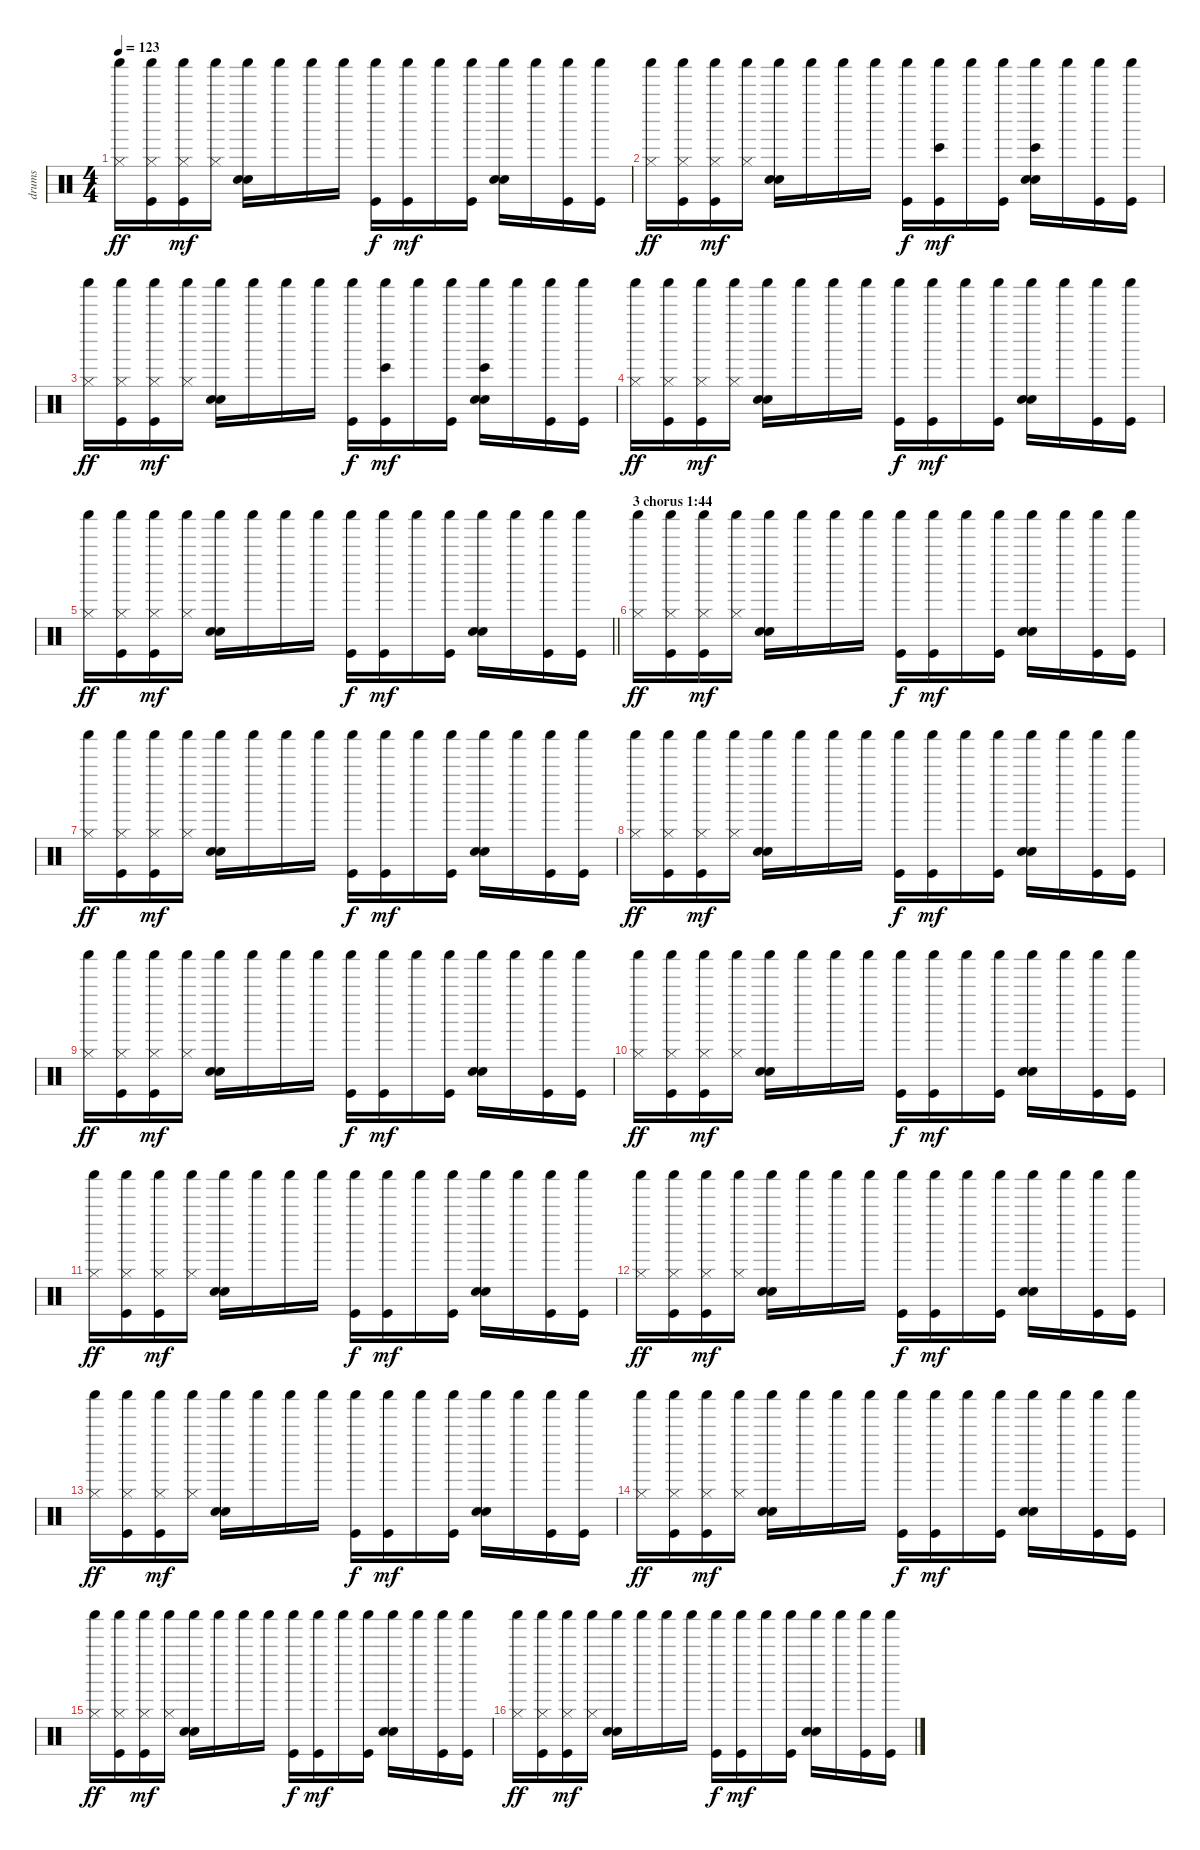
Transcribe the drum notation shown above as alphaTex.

\track ("drums" "drums") {instrument percussion}
\staff {score}
\articulation defaults
\ts (4 4)
\tempo 123
\clef neutral
\ks c
("Shaker (hit)" "Hi-Hat (closed)").16{dy ff} ("Shaker (hit)" "Hi-Hat (closed)" "Kick (hit)").16 ("Shaker (hit)" "Hi-Hat (closed)" "Kick (hit)").16{dy mf} ("Shaker (hit)" "Hi-Hat (closed)").16 ("Shaker (hit)" "Electric Snare (hit)" "Hand Clap (hit)").16 "Shaker (hit)".16 "Shaker (hit)".16 "Shaker (hit)".16 ("Shaker (hit)" "Kick (hit)").16{dy f} ("Shaker (hit)" "Kick (hit)").16{dy mf} "Shaker (hit)".16 ("Shaker (hit)" "Kick (hit)").16 ("Shaker (hit)" "Electric Snare (hit)" "Hand Clap (hit)").16 "Shaker (hit)".16 ("Shaker (hit)" "Kick (hit)").16 ("Shaker (hit)" "Kick (hit)").16 |
("Shaker (hit)" "Hi-Hat (closed)").16{dy ff} ("Shaker (hit)" "Hi-Hat (closed)" "Kick (hit)").16 ("Shaker (hit)" "Hi-Hat (closed)" "Kick (hit)").16{dy mf} ("Shaker (hit)" "Hi-Hat (closed)").16 ("Shaker (hit)" "Electric Snare (hit)" "Hand Clap (hit)").16 "Shaker (hit)".16 "Shaker (hit)".16 "Shaker (hit)".16 ("Shaker (hit)" "Kick (hit)").16{dy f} ("Shaker (hit)" "Bongo High (hit)" "Kick (hit)").16{dy mf} "Shaker (hit)".16 ("Shaker (hit)" "Kick (hit)").16 ("Shaker (hit)" "Electric Snare (hit)" "Hand Clap (hit)" "Bongo High (hit)").16 "Shaker (hit)".16 ("Shaker (hit)" "Kick (hit)").16 ("Shaker (hit)" "Kick (hit)").16 |
("Shaker (hit)" "Hi-Hat (closed)").16{dy ff} ("Shaker (hit)" "Hi-Hat (closed)" "Kick (hit)").16 ("Shaker (hit)" "Hi-Hat (closed)" "Kick (hit)").16{dy mf} ("Shaker (hit)" "Hi-Hat (closed)").16 ("Shaker (hit)" "Electric Snare (hit)" "Hand Clap (hit)").16 "Shaker (hit)".16 "Shaker (hit)".16 "Shaker (hit)".16 ("Shaker (hit)" "Kick (hit)").16{dy f} ("Shaker (hit)" "Bongo High (hit)" "Kick (hit)").16{dy mf} "Shaker (hit)".16 ("Shaker (hit)" "Kick (hit)").16 ("Shaker (hit)" "Electric Snare (hit)" "Hand Clap (hit)" "Bongo High (hit)").16 "Shaker (hit)".16 ("Shaker (hit)" "Kick (hit)").16 ("Shaker (hit)" "Kick (hit)").16 |
("Shaker (hit)" "Hi-Hat (closed)").16{dy ff} ("Shaker (hit)" "Hi-Hat (closed)" "Kick (hit)").16 ("Shaker (hit)" "Hi-Hat (closed)" "Kick (hit)").16{dy mf} ("Shaker (hit)" "Hi-Hat (closed)").16 ("Shaker (hit)" "Electric Snare (hit)" "Hand Clap (hit)").16 "Shaker (hit)".16 "Shaker (hit)".16 "Shaker (hit)".16 ("Shaker (hit)" "Kick (hit)").16{dy f} ("Shaker (hit)" "Kick (hit)").16{dy mf} "Shaker (hit)".16 ("Shaker (hit)" "Kick (hit)").16 ("Shaker (hit)" "Electric Snare (hit)" "Hand Clap (hit)").16 "Shaker (hit)".16 ("Shaker (hit)" "Kick (hit)").16 ("Shaker (hit)" "Kick (hit)").16 |
\barLineRight lightlight
("Shaker (hit)" "Hi-Hat (closed)").16{dy ff} ("Shaker (hit)" "Hi-Hat (closed)" "Kick (hit)").16 ("Shaker (hit)" "Hi-Hat (closed)" "Kick (hit)").16{dy mf} ("Shaker (hit)" "Hi-Hat (closed)").16 ("Shaker (hit)" "Electric Snare (hit)" "Hand Clap (hit)").16 "Shaker (hit)".16 "Shaker (hit)".16 "Shaker (hit)".16 ("Shaker (hit)" "Kick (hit)").16{dy f} ("Shaker (hit)" "Kick (hit)").16{dy mf} "Shaker (hit)".16 ("Shaker (hit)" "Kick (hit)").16 ("Shaker (hit)" "Electric Snare (hit)" "Hand Clap (hit)").16 "Shaker (hit)".16 ("Shaker (hit)" "Kick (hit)").16 ("Shaker (hit)" "Kick (hit)").16 |
\section ("" "3 chorus 1:44")
("Shaker (hit)" "Hi-Hat (closed)").16{dy ff} ("Shaker (hit)" "Hi-Hat (closed)" "Kick (hit)").16 ("Shaker (hit)" "Hi-Hat (closed)" "Kick (hit)").16{dy mf} ("Shaker (hit)" "Hi-Hat (closed)").16 ("Shaker (hit)" "Electric Snare (hit)" "Hand Clap (hit)").16 "Shaker (hit)".16 "Shaker (hit)".16 "Shaker (hit)".16 ("Shaker (hit)" "Kick (hit)").16{dy f} ("Shaker (hit)" "Kick (hit)").16{dy mf} "Shaker (hit)".16 ("Shaker (hit)" "Kick (hit)").16 ("Shaker (hit)" "Electric Snare (hit)" "Hand Clap (hit)").16 "Shaker (hit)".16 ("Shaker (hit)" "Kick (hit)").16 ("Shaker (hit)" "Kick (hit)").16 |
("Shaker (hit)" "Hi-Hat (closed)").16{dy ff} ("Shaker (hit)" "Hi-Hat (closed)" "Kick (hit)").16 ("Shaker (hit)" "Hi-Hat (closed)" "Kick (hit)").16{dy mf} ("Shaker (hit)" "Hi-Hat (closed)").16 ("Shaker (hit)" "Electric Snare (hit)" "Hand Clap (hit)").16 "Shaker (hit)".16 "Shaker (hit)".16 "Shaker (hit)".16 ("Shaker (hit)" "Kick (hit)").16{dy f} ("Shaker (hit)" "Kick (hit)").16{dy mf} "Shaker (hit)".16 ("Shaker (hit)" "Kick (hit)").16 ("Shaker (hit)" "Electric Snare (hit)" "Hand Clap (hit)").16 "Shaker (hit)".16 ("Shaker (hit)" "Kick (hit)").16 ("Shaker (hit)" "Kick (hit)").16 |
("Shaker (hit)" "Hi-Hat (closed)").16{dy ff} ("Shaker (hit)" "Hi-Hat (closed)" "Kick (hit)").16 ("Shaker (hit)" "Hi-Hat (closed)" "Kick (hit)").16{dy mf} ("Shaker (hit)" "Hi-Hat (closed)").16 ("Shaker (hit)" "Electric Snare (hit)" "Hand Clap (hit)").16 "Shaker (hit)".16 "Shaker (hit)".16 "Shaker (hit)".16 ("Shaker (hit)" "Kick (hit)").16{dy f} ("Shaker (hit)" "Kick (hit)").16{dy mf} "Shaker (hit)".16 ("Shaker (hit)" "Kick (hit)").16 ("Shaker (hit)" "Electric Snare (hit)" "Hand Clap (hit)").16 "Shaker (hit)".16 ("Shaker (hit)" "Kick (hit)").16 ("Shaker (hit)" "Kick (hit)").16 |
("Shaker (hit)" "Hi-Hat (closed)").16{dy ff} ("Shaker (hit)" "Hi-Hat (closed)" "Kick (hit)").16 ("Shaker (hit)" "Hi-Hat (closed)" "Kick (hit)").16{dy mf} ("Shaker (hit)" "Hi-Hat (closed)").16 ("Shaker (hit)" "Electric Snare (hit)" "Hand Clap (hit)").16 "Shaker (hit)".16 "Shaker (hit)".16 "Shaker (hit)".16 ("Shaker (hit)" "Kick (hit)").16{dy f} ("Shaker (hit)" "Kick (hit)").16{dy mf} "Shaker (hit)".16 ("Shaker (hit)" "Kick (hit)").16 ("Shaker (hit)" "Electric Snare (hit)" "Hand Clap (hit)").16 "Shaker (hit)".16 ("Shaker (hit)" "Kick (hit)").16 ("Shaker (hit)" "Kick (hit)").16 |
("Shaker (hit)" "Hi-Hat (closed)").16{dy ff} ("Shaker (hit)" "Hi-Hat (closed)" "Kick (hit)").16 ("Shaker (hit)" "Hi-Hat (closed)" "Kick (hit)").16{dy mf} ("Shaker (hit)" "Hi-Hat (closed)").16 ("Shaker (hit)" "Electric Snare (hit)" "Hand Clap (hit)").16 "Shaker (hit)".16 "Shaker (hit)".16 "Shaker (hit)".16 ("Shaker (hit)" "Kick (hit)").16{dy f} ("Shaker (hit)" "Kick (hit)").16{dy mf} "Shaker (hit)".16 ("Shaker (hit)" "Kick (hit)").16 ("Shaker (hit)" "Electric Snare (hit)" "Hand Clap (hit)").16 "Shaker (hit)".16 ("Shaker (hit)" "Kick (hit)").16 ("Shaker (hit)" "Kick (hit)").16 |
("Shaker (hit)" "Hi-Hat (closed)").16{dy ff} ("Shaker (hit)" "Hi-Hat (closed)" "Kick (hit)").16 ("Shaker (hit)" "Hi-Hat (closed)" "Kick (hit)").16{dy mf} ("Shaker (hit)" "Hi-Hat (closed)").16 ("Shaker (hit)" "Electric Snare (hit)" "Hand Clap (hit)").16 "Shaker (hit)".16 "Shaker (hit)".16 "Shaker (hit)".16 ("Shaker (hit)" "Kick (hit)").16{dy f} ("Shaker (hit)" "Kick (hit)").16{dy mf} "Shaker (hit)".16 ("Shaker (hit)" "Kick (hit)").16 ("Shaker (hit)" "Electric Snare (hit)" "Hand Clap (hit)").16 "Shaker (hit)".16 ("Shaker (hit)" "Kick (hit)").16 ("Shaker (hit)" "Kick (hit)").16 |
("Shaker (hit)" "Hi-Hat (closed)").16{dy ff} ("Shaker (hit)" "Hi-Hat (closed)" "Kick (hit)").16 ("Shaker (hit)" "Hi-Hat (closed)" "Kick (hit)").16{dy mf} ("Shaker (hit)" "Hi-Hat (closed)").16 ("Shaker (hit)" "Electric Snare (hit)" "Hand Clap (hit)").16 "Shaker (hit)".16 "Shaker (hit)".16 "Shaker (hit)".16 ("Shaker (hit)" "Kick (hit)").16{dy f} ("Shaker (hit)" "Kick (hit)").16{dy mf} "Shaker (hit)".16 ("Shaker (hit)" "Kick (hit)").16 ("Shaker (hit)" "Electric Snare (hit)" "Hand Clap (hit)").16 "Shaker (hit)".16 ("Shaker (hit)" "Kick (hit)").16 ("Shaker (hit)" "Kick (hit)").16 |
("Shaker (hit)" "Hi-Hat (closed)").16{dy ff} ("Shaker (hit)" "Hi-Hat (closed)" "Kick (hit)").16 ("Shaker (hit)" "Hi-Hat (closed)" "Kick (hit)").16{dy mf} ("Shaker (hit)" "Hi-Hat (closed)").16 ("Shaker (hit)" "Electric Snare (hit)" "Hand Clap (hit)").16 "Shaker (hit)".16 "Shaker (hit)".16 "Shaker (hit)".16 ("Shaker (hit)" "Kick (hit)").16{dy f} ("Shaker (hit)" "Kick (hit)").16{dy mf} "Shaker (hit)".16 ("Shaker (hit)" "Kick (hit)").16 ("Shaker (hit)" "Electric Snare (hit)" "Hand Clap (hit)").16 "Shaker (hit)".16 ("Shaker (hit)" "Kick (hit)").16 ("Shaker (hit)" "Kick (hit)").16 |
("Shaker (hit)" "Hi-Hat (closed)").16{dy ff} ("Shaker (hit)" "Hi-Hat (closed)" "Kick (hit)").16 ("Shaker (hit)" "Hi-Hat (closed)" "Kick (hit)").16{dy mf} ("Shaker (hit)" "Hi-Hat (closed)").16 ("Shaker (hit)" "Electric Snare (hit)" "Hand Clap (hit)").16 "Shaker (hit)".16 "Shaker (hit)".16 "Shaker (hit)".16 ("Shaker (hit)" "Kick (hit)").16{dy f} ("Shaker (hit)" "Kick (hit)").16{dy mf} "Shaker (hit)".16 ("Shaker (hit)" "Kick (hit)").16 ("Shaker (hit)" "Electric Snare (hit)" "Hand Clap (hit)").16 "Shaker (hit)".16 ("Shaker (hit)" "Kick (hit)").16 ("Shaker (hit)" "Kick (hit)").16 |
("Shaker (hit)" "Hi-Hat (closed)").16{dy ff} ("Shaker (hit)" "Hi-Hat (closed)" "Kick (hit)").16 ("Shaker (hit)" "Hi-Hat (closed)" "Kick (hit)").16{dy mf} ("Shaker (hit)" "Hi-Hat (closed)").16 ("Shaker (hit)" "Electric Snare (hit)" "Hand Clap (hit)").16 "Shaker (hit)".16 "Shaker (hit)".16 "Shaker (hit)".16 ("Shaker (hit)" "Kick (hit)").16{dy f} ("Shaker (hit)" "Kick (hit)").16{dy mf} "Shaker (hit)".16 ("Shaker (hit)" "Kick (hit)").16 ("Shaker (hit)" "Electric Snare (hit)" "Hand Clap (hit)").16 "Shaker (hit)".16 ("Shaker (hit)" "Kick (hit)").16 ("Shaker (hit)" "Kick (hit)").16 |
("Shaker (hit)" "Hi-Hat (closed)").16{dy ff} ("Shaker (hit)" "Hi-Hat (closed)" "Kick (hit)").16 ("Shaker (hit)" "Hi-Hat (closed)" "Kick (hit)").16{dy mf} ("Shaker (hit)" "Hi-Hat (closed)").16 ("Shaker (hit)" "Electric Snare (hit)" "Hand Clap (hit)").16 "Shaker (hit)".16 "Shaker (hit)".16 "Shaker (hit)".16 ("Shaker (hit)" "Kick (hit)").16{dy f} ("Shaker (hit)" "Kick (hit)").16{dy mf} "Shaker (hit)".16 ("Shaker (hit)" "Kick (hit)").16 ("Shaker (hit)" "Electric Snare (hit)" "Hand Clap (hit)").16 "Shaker (hit)".16 ("Shaker (hit)" "Kick (hit)").16 ("Shaker (hit)" "Kick (hit)").16
